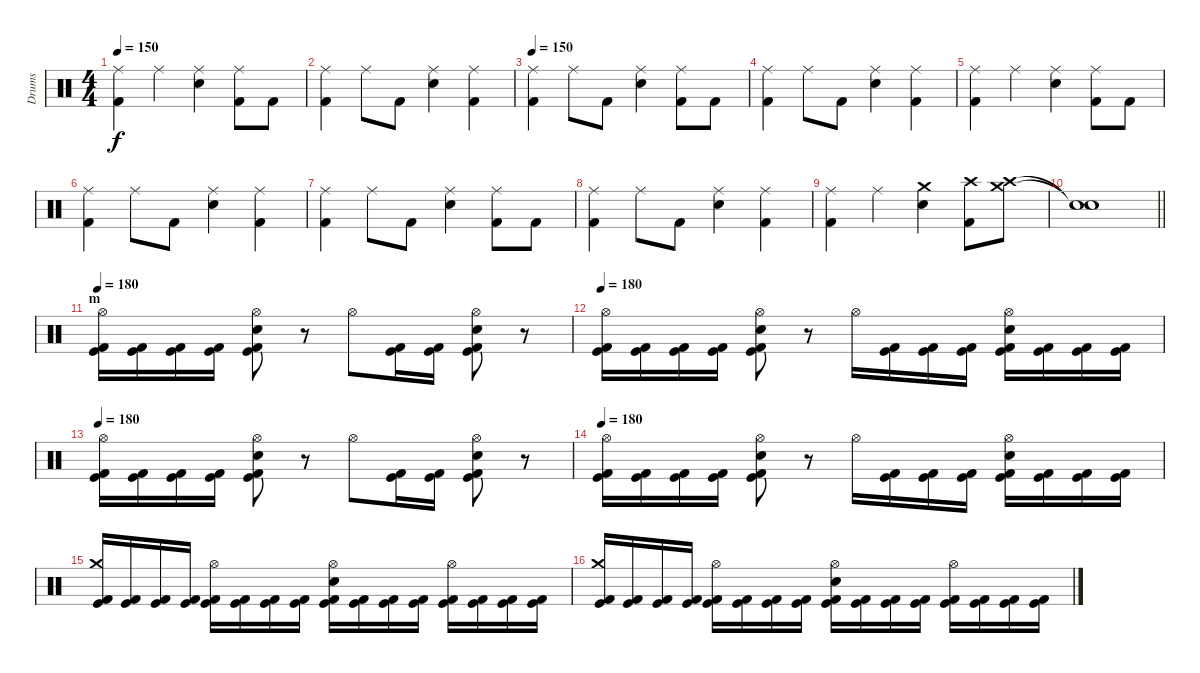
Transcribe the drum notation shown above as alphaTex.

\track ("Drums" "Drums") {instrument percussion}
\staff {score}
\articulation defaults
\ts (4 4)
\tempo 150
\clef neutral
\ks c
("Kick (hit) 2" "Ride (middle)").4{dy f} "Ride (middle)".4 ("Electric Snare (hit)" "Ride (middle)").4 ("Kick (hit) 2" "Ride (middle)").8 "Kick (hit) 2".8 |
("Kick (hit) 2" "Ride (middle)").4 "Ride (middle)".8 "Kick (hit) 2".8 ("Electric Snare (hit)" "Ride (middle)").4 ("Kick (hit) 2" "Ride (middle)").4 |
\tempo 150
("Kick (hit) 2" "Ride (middle)").4 "Ride (middle)".8 "Kick (hit) 2".8 ("Electric Snare (hit)" "Ride (middle)").4 ("Kick (hit) 2" "Ride (middle)").8 "Kick (hit) 2".8 |
("Kick (hit) 2" "Ride (middle)").4 "Ride (middle)".8 "Kick (hit) 2".8 ("Electric Snare (hit)" "Ride (middle)").4 ("Kick (hit) 2" "Ride (middle)").4 |
("Kick (hit) 2" "Ride (middle)").4 "Ride (middle)".4 ("Electric Snare (hit)" "Ride (middle)").4 ("Kick (hit) 2" "Ride (middle)").8 "Kick (hit) 2".8 |
("Kick (hit) 2" "Ride (middle)").4 "Ride (middle)".8 "Kick (hit) 2".8 ("Electric Snare (hit)" "Ride (middle)").4 ("Kick (hit) 2" "Ride (middle)").4 |
("Kick (hit) 2" "Ride (middle)").4 "Ride (middle)".8 "Kick (hit) 2".8 ("Electric Snare (hit)" "Ride (middle)").4 ("Kick (hit) 2" "Ride (middle)").8 "Kick (hit) 2".8 |
("Kick (hit) 2" "Ride (middle)").4 "Ride (middle)".8 "Kick (hit) 2".8 ("Electric Snare (hit)" "Ride (middle)").4 ("Kick (hit) 2" "Ride (middle)").4 |
("Kick (hit) 2" "Ride (middle)").4 "Ride (middle)".4 ("Electric Snare (hit)" "Crash medium (hit)").4 ("Kick (hit) 2" "Crash high (hit)").8 ("Crash high (hit)" "Crash medium (hit)").8 |
\barLineRight lightlight
("Snare (hit)"{t} "Snare (hit)"{t}).1 |
\section ("" "m")
\tempo 180
("Kick (hit) 2" "Kick (hit)" "Hi-Hat (open)").16 ("Kick (hit) 2" "Kick (hit)").16 ("Kick (hit) 2" "Kick (hit)").16 ("Kick (hit) 2" "Kick (hit)").16 ("Kick (hit) 2" "Kick (hit)" "Electric Snare (hit)" "Hi-Hat (open)").8 r.8 "Hi-Hat (open)".8 ("Kick (hit) 2" "Kick (hit)").16 ("Kick (hit) 2" "Kick (hit)").16 ("Kick (hit) 2" "Kick (hit)" "Hi-Hat (open)" "Electric Snare (hit)").8 r.8 |
\tempo 180
("Kick (hit) 2" "Kick (hit)" "Hi-Hat (open)").16 ("Kick (hit) 2" "Kick (hit)").16 ("Kick (hit) 2" "Kick (hit)").16 ("Kick (hit) 2" "Kick (hit)").16 ("Kick (hit) 2" "Kick (hit)" "Electric Snare (hit)" "Hi-Hat (open)").8 r.8 "Hi-Hat (open)".16 ("Kick (hit) 2" "Kick (hit)").16 ("Kick (hit) 2" "Kick (hit)").16 ("Kick (hit) 2" "Kick (hit)").16 ("Kick (hit) 2" "Kick (hit)" "Hi-Hat (open)" "Electric Snare (hit)").16 ("Kick (hit) 2" "Kick (hit)").16 ("Kick (hit) 2" "Kick (hit)").16 ("Kick (hit) 2" "Kick (hit)").16 |
\tempo 180
("Kick (hit) 2" "Kick (hit)" "Hi-Hat (open)").16 ("Kick (hit) 2" "Kick (hit)").16 ("Kick (hit) 2" "Kick (hit)").16 ("Kick (hit) 2" "Kick (hit)").16 ("Kick (hit) 2" "Kick (hit)" "Electric Snare (hit)" "Hi-Hat (open)").8 r.8 "Hi-Hat (open)".8 ("Kick (hit) 2" "Kick (hit)").16 ("Kick (hit) 2" "Kick (hit)").16 ("Kick (hit) 2" "Kick (hit)" "Hi-Hat (open)" "Electric Snare (hit)").8 r.8 |
\tempo 180
("Kick (hit) 2" "Kick (hit)" "Hi-Hat (open)").16 ("Kick (hit) 2" "Kick (hit)").16 ("Kick (hit) 2" "Kick (hit)").16 ("Kick (hit) 2" "Kick (hit)").16 ("Kick (hit) 2" "Kick (hit)" "Electric Snare (hit)" "Hi-Hat (open)").8 r.8 "Hi-Hat (open)".16 ("Kick (hit) 2" "Kick (hit)").16 ("Kick (hit) 2" "Kick (hit)").16 ("Kick (hit) 2" "Kick (hit)").16 ("Kick (hit) 2" "Kick (hit)" "Hi-Hat (open)" "Electric Snare (hit)").16 ("Kick (hit) 2" "Kick (hit)").16 ("Kick (hit) 2" "Kick (hit)").16 ("Kick (hit) 2" "Kick (hit)").16 |
("Kick (hit)" "Kick (hit) 2" "Crash medium (hit)").16 ("Kick (hit)" "Kick (hit) 2").16 ("Kick (hit)" "Kick (hit) 2").16 ("Kick (hit)" "Kick (hit) 2").16 ("Kick (hit)" "Kick (hit) 2" "Hi-Hat (open)").16 ("Kick (hit)" "Kick (hit) 2").16 ("Kick (hit)" "Kick (hit) 2").16 ("Kick (hit)" "Kick (hit) 2").16 ("Kick (hit)" "Kick (hit) 2" "Hi-Hat (open)" "Electric Snare (hit)").16 ("Kick (hit)" "Kick (hit) 2").16 ("Kick (hit)" "Kick (hit) 2").16 ("Kick (hit)" "Kick (hit) 2").16 ("Kick (hit)" "Kick (hit) 2" "Hi-Hat (open)").16 ("Kick (hit)" "Kick (hit) 2").16 ("Kick (hit)" "Kick (hit) 2").16 ("Kick (hit)" "Kick (hit) 2").16 |
("Kick (hit)" "Kick (hit) 2" "Crash medium (hit)").16 ("Kick (hit)" "Kick (hit) 2").16 ("Kick (hit)" "Kick (hit) 2").16 ("Kick (hit)" "Kick (hit) 2").16 ("Kick (hit)" "Kick (hit) 2" "Hi-Hat (open)").16 ("Kick (hit)" "Kick (hit) 2").16 ("Kick (hit)" "Kick (hit) 2").16 ("Kick (hit)" "Kick (hit) 2").16 ("Kick (hit)" "Kick (hit) 2" "Hi-Hat (open)" "Electric Snare (hit)").16 ("Kick (hit)" "Kick (hit) 2").16 ("Kick (hit)" "Kick (hit) 2").16 ("Kick (hit)" "Kick (hit) 2").16 ("Kick (hit)" "Kick (hit) 2" "Hi-Hat (open)").16 ("Kick (hit)" "Kick (hit) 2").16 ("Kick (hit)" "Kick (hit) 2").16 ("Kick (hit)" "Kick (hit) 2").16
